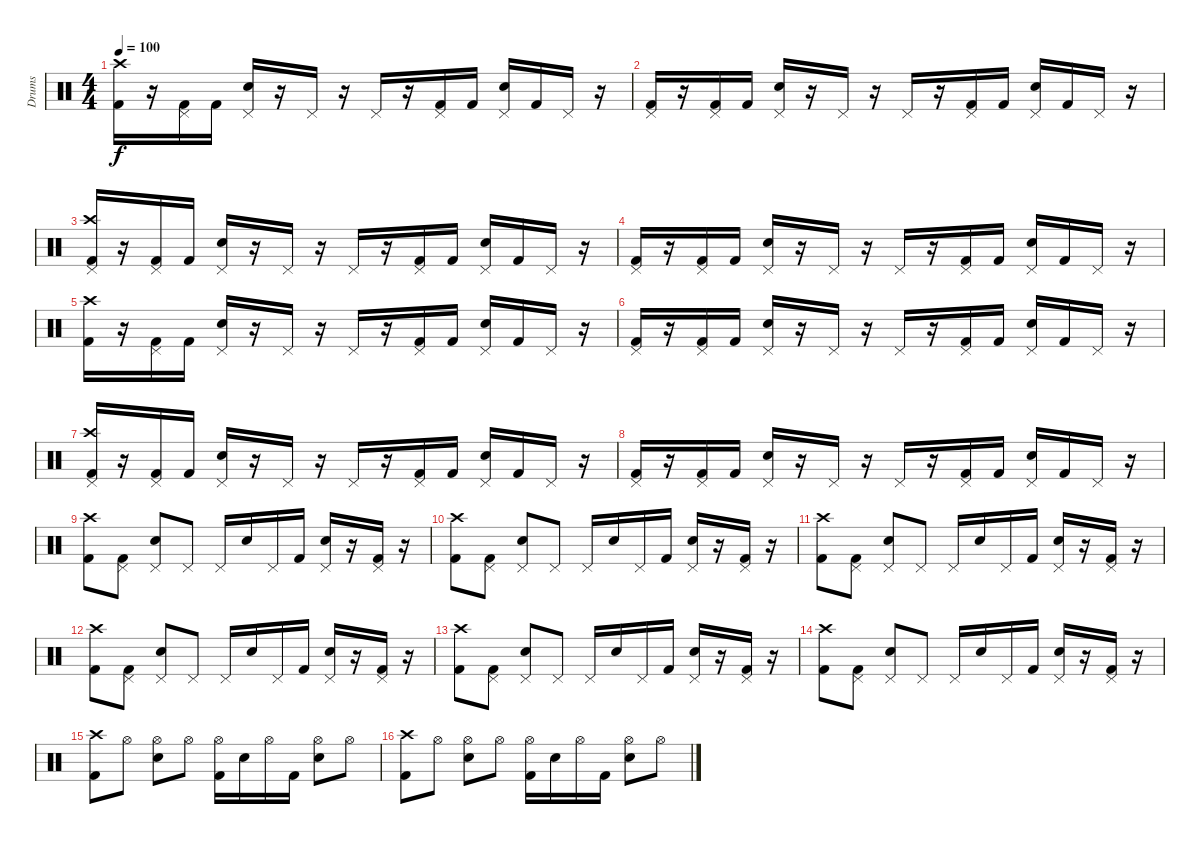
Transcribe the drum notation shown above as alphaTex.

\track ("Drums" "Drums") {instrument percussion}
\staff {score}
\articulation defaults
\ts (4 4)
\tempo 100
\clef neutral
\ks c
("Kick (hit) 2" "Crash high (hit)").16{dy f} r.16 ("Kick (hit) 2" "Pedal Hi-Hat (hit)").16 "Kick (hit) 2".16 ("Electric Snare (hit)" "Pedal Hi-Hat (hit)").16 r.16 "Pedal Hi-Hat (hit)".16 r.16 "Pedal Hi-Hat (hit)".16 r.16 ("Kick (hit) 2" "Pedal Hi-Hat (hit)").16 "Kick (hit) 2".16 ("Pedal Hi-Hat (hit)" "Electric Snare (hit)").16 "Kick (hit) 2".16 "Pedal Hi-Hat (hit)".16 r.16 |
("Kick (hit) 2" "Pedal Hi-Hat (hit)").16 r.16 ("Kick (hit) 2" "Pedal Hi-Hat (hit)").16 "Kick (hit) 2".16 ("Electric Snare (hit)" "Pedal Hi-Hat (hit)").16 r.16 "Pedal Hi-Hat (hit)".16 r.16 "Pedal Hi-Hat (hit)".16 r.16 ("Kick (hit) 2" "Pedal Hi-Hat (hit)").16 "Kick (hit) 2".16 ("Pedal Hi-Hat (hit)" "Electric Snare (hit)").16 "Kick (hit) 2".16 "Pedal Hi-Hat (hit)".16 r.16 |
("Kick (hit) 2" "Pedal Hi-Hat (hit)" "Crash high (hit)").16 r.16 ("Kick (hit) 2" "Pedal Hi-Hat (hit)").16 "Kick (hit) 2".16 ("Electric Snare (hit)" "Pedal Hi-Hat (hit)").16 r.16 "Pedal Hi-Hat (hit)".16 r.16 "Pedal Hi-Hat (hit)".16 r.16 ("Kick (hit) 2" "Pedal Hi-Hat (hit)").16 "Kick (hit) 2".16 ("Pedal Hi-Hat (hit)" "Electric Snare (hit)").16 "Kick (hit) 2".16 "Pedal Hi-Hat (hit)".16 r.16 |
("Kick (hit) 2" "Pedal Hi-Hat (hit)").16 r.16 ("Kick (hit) 2" "Pedal Hi-Hat (hit)").16 "Kick (hit) 2".16 ("Electric Snare (hit)" "Pedal Hi-Hat (hit)").16 r.16 "Pedal Hi-Hat (hit)".16 r.16 "Pedal Hi-Hat (hit)".16 r.16 ("Kick (hit) 2" "Pedal Hi-Hat (hit)").16 "Kick (hit) 2".16 ("Pedal Hi-Hat (hit)" "Electric Snare (hit)").16 "Kick (hit) 2".16 "Pedal Hi-Hat (hit)".16 r.16 |
("Kick (hit) 2" "Crash high (hit)").16 r.16 ("Kick (hit) 2" "Pedal Hi-Hat (hit)").16 "Kick (hit) 2".16 ("Electric Snare (hit)" "Pedal Hi-Hat (hit)").16 r.16 "Pedal Hi-Hat (hit)".16 r.16 "Pedal Hi-Hat (hit)".16 r.16 ("Kick (hit) 2" "Pedal Hi-Hat (hit)").16 "Kick (hit) 2".16 ("Pedal Hi-Hat (hit)" "Electric Snare (hit)").16 "Kick (hit) 2".16 "Pedal Hi-Hat (hit)".16 r.16 |
("Kick (hit) 2" "Pedal Hi-Hat (hit)").16 r.16 ("Kick (hit) 2" "Pedal Hi-Hat (hit)").16 "Kick (hit) 2".16 ("Electric Snare (hit)" "Pedal Hi-Hat (hit)").16 r.16 "Pedal Hi-Hat (hit)".16 r.16 "Pedal Hi-Hat (hit)".16 r.16 ("Kick (hit) 2" "Pedal Hi-Hat (hit)").16 "Kick (hit) 2".16 ("Pedal Hi-Hat (hit)" "Electric Snare (hit)").16 "Kick (hit) 2".16 "Pedal Hi-Hat (hit)".16 r.16 |
("Kick (hit) 2" "Pedal Hi-Hat (hit)" "Crash high (hit)").16 r.16 ("Kick (hit) 2" "Pedal Hi-Hat (hit)").16 "Kick (hit) 2".16 ("Electric Snare (hit)" "Pedal Hi-Hat (hit)").16 r.16 "Pedal Hi-Hat (hit)".16 r.16 "Pedal Hi-Hat (hit)".16 r.16 ("Kick (hit) 2" "Pedal Hi-Hat (hit)").16 "Kick (hit) 2".16 ("Pedal Hi-Hat (hit)" "Electric Snare (hit)").16 "Kick (hit) 2".16 "Pedal Hi-Hat (hit)".16 r.16 |
("Kick (hit) 2" "Pedal Hi-Hat (hit)").16 r.16 ("Kick (hit) 2" "Pedal Hi-Hat (hit)").16 "Kick (hit) 2".16 ("Electric Snare (hit)" "Pedal Hi-Hat (hit)").16 r.16 "Pedal Hi-Hat (hit)".16 r.16 "Pedal Hi-Hat (hit)".16 r.16 ("Kick (hit) 2" "Pedal Hi-Hat (hit)").16 "Kick (hit) 2".16 ("Pedal Hi-Hat (hit)" "Electric Snare (hit)").16 "Kick (hit) 2".16 "Pedal Hi-Hat (hit)".16 r.16 |
("Crash high (hit)" "Kick (hit) 2").8 ("Pedal Hi-Hat (hit)" "Kick (hit) 2").8 ("Electric Snare (hit)" "Pedal Hi-Hat (hit)").8 "Pedal Hi-Hat (hit)".8 "Pedal Hi-Hat (hit)".16 "Electric Snare (hit)".16 "Pedal Hi-Hat (hit)".16 "Kick (hit) 2".16 ("Electric Snare (hit)" "Pedal Hi-Hat (hit)").16 r.16 ("Kick (hit) 2" "Pedal Hi-Hat (hit)").16 r.16 |
("Crash high (hit)" "Kick (hit) 2").8 ("Pedal Hi-Hat (hit)" "Kick (hit) 2").8 ("Electric Snare (hit)" "Pedal Hi-Hat (hit)").8 "Pedal Hi-Hat (hit)".8 "Pedal Hi-Hat (hit)".16 "Electric Snare (hit)".16 "Pedal Hi-Hat (hit)".16 "Kick (hit) 2".16 ("Electric Snare (hit)" "Pedal Hi-Hat (hit)").16 r.16 ("Kick (hit) 2" "Pedal Hi-Hat (hit)").16 r.16 |
("Crash high (hit)" "Kick (hit) 2").8 ("Pedal Hi-Hat (hit)" "Kick (hit) 2").8 ("Electric Snare (hit)" "Pedal Hi-Hat (hit)").8 "Pedal Hi-Hat (hit)".8 "Pedal Hi-Hat (hit)".16 "Electric Snare (hit)".16 "Pedal Hi-Hat (hit)".16 "Kick (hit) 2".16 ("Electric Snare (hit)" "Pedal Hi-Hat (hit)").16 r.16 ("Kick (hit) 2" "Pedal Hi-Hat (hit)").16 r.16 |
("Crash high (hit)" "Kick (hit) 2").8 ("Pedal Hi-Hat (hit)" "Kick (hit) 2").8 ("Electric Snare (hit)" "Pedal Hi-Hat (hit)").8 "Pedal Hi-Hat (hit)".8 "Pedal Hi-Hat (hit)".16 "Electric Snare (hit)".16 "Pedal Hi-Hat (hit)".16 "Kick (hit) 2".16 ("Electric Snare (hit)" "Pedal Hi-Hat (hit)").16 r.16 ("Kick (hit) 2" "Pedal Hi-Hat (hit)").16 r.16 |
("Crash high (hit)" "Kick (hit) 2").8 ("Pedal Hi-Hat (hit)" "Kick (hit) 2").8 ("Electric Snare (hit)" "Pedal Hi-Hat (hit)").8 "Pedal Hi-Hat (hit)".8 "Pedal Hi-Hat (hit)".16 "Electric Snare (hit)".16 "Pedal Hi-Hat (hit)".16 "Kick (hit) 2".16 ("Electric Snare (hit)" "Pedal Hi-Hat (hit)").16 r.16 ("Kick (hit) 2" "Pedal Hi-Hat (hit)").16 r.16 |
("Crash high (hit)" "Kick (hit) 2").8 ("Pedal Hi-Hat (hit)" "Kick (hit) 2").8 ("Electric Snare (hit)" "Pedal Hi-Hat (hit)").8 "Pedal Hi-Hat (hit)".8 "Pedal Hi-Hat (hit)".16 "Electric Snare (hit)".16 "Pedal Hi-Hat (hit)".16 "Kick (hit) 2".16 ("Electric Snare (hit)" "Pedal Hi-Hat (hit)").16 r.16 ("Kick (hit) 2" "Pedal Hi-Hat (hit)").16 r.16 |
("Crash high (hit)" "Kick (hit) 2").8 "Hi-Hat (open)".8 ("Hi-Hat (open)" "Electric Snare (hit)").8 "Hi-Hat (open)".8 ("Hi-Hat (open)" "Kick (hit) 2").16 "Electric Snare (hit)".16 "Hi-Hat (open)".16 "Kick (hit) 2".16 ("Hi-Hat (open)" "Electric Snare (hit)").8 "Hi-Hat (open)".8 |
("Crash high (hit)" "Kick (hit) 2").8 "Hi-Hat (open)".8 ("Hi-Hat (open)" "Electric Snare (hit)").8 "Hi-Hat (open)".8 ("Hi-Hat (open)" "Kick (hit) 2").16 "Electric Snare (hit)".16 "Hi-Hat (open)".16 "Kick (hit) 2".16 ("Hi-Hat (open)" "Electric Snare (hit)").8 "Hi-Hat (open)".8
